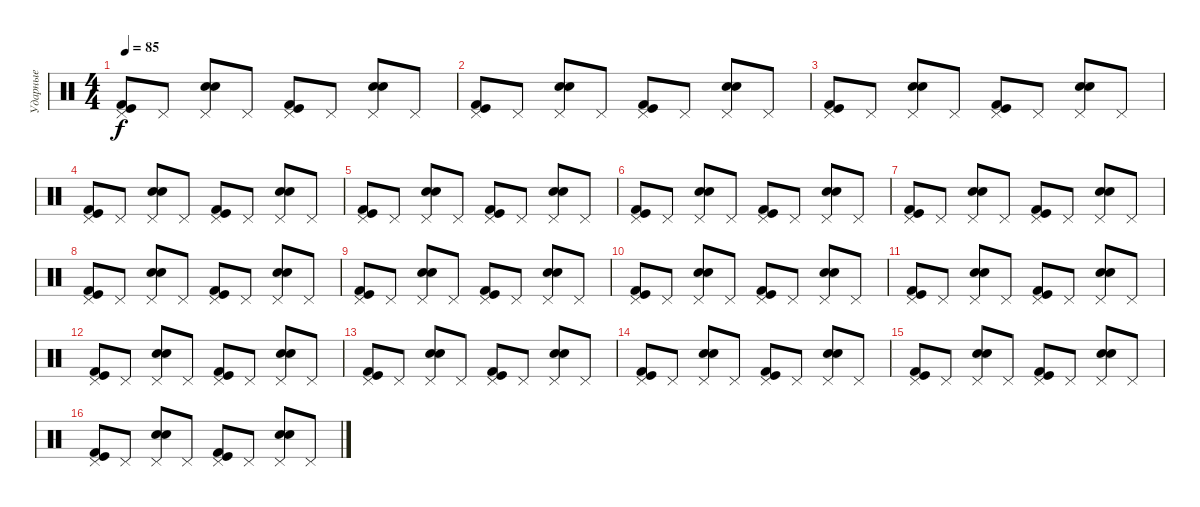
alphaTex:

\track ("Ударные" "Ударные") {instrument percussion}
\staff {score}
\articulation defaults
\ts (4 4)
\tempo 85
\clef neutral
\ks c
("Kick (hit) 2" "Kick (hit)" "Pedal Hi-Hat (hit)").8{dy f} "Pedal Hi-Hat (hit)".8 ("Snare (hit) 2" "Snare (hit) 2" "Pedal Hi-Hat (hit)").8 "Pedal Hi-Hat (hit)".8 ("Kick (hit) 2" "Kick (hit)" "Pedal Hi-Hat (hit)").8 "Pedal Hi-Hat (hit)".8 ("Snare (hit) 2" "Snare (hit) 2" "Pedal Hi-Hat (hit)").8 "Pedal Hi-Hat (hit)".8 |
("Kick (hit) 2" "Kick (hit)" "Pedal Hi-Hat (hit)").8 "Pedal Hi-Hat (hit)".8 ("Snare (hit) 2" "Snare (hit) 2" "Pedal Hi-Hat (hit)").8 "Pedal Hi-Hat (hit)".8 ("Kick (hit) 2" "Kick (hit)" "Pedal Hi-Hat (hit)").8 "Pedal Hi-Hat (hit)".8 ("Snare (hit) 2" "Snare (hit) 2" "Pedal Hi-Hat (hit)").8 "Pedal Hi-Hat (hit)".8 |
("Kick (hit) 2" "Kick (hit)" "Pedal Hi-Hat (hit)").8 "Pedal Hi-Hat (hit)".8 ("Snare (hit) 2" "Snare (hit) 2" "Pedal Hi-Hat (hit)").8 "Pedal Hi-Hat (hit)".8 ("Kick (hit) 2" "Kick (hit)" "Pedal Hi-Hat (hit)").8 "Pedal Hi-Hat (hit)".8 ("Snare (hit) 2" "Snare (hit) 2" "Pedal Hi-Hat (hit)").8 "Pedal Hi-Hat (hit)".8 |
("Kick (hit) 2" "Kick (hit)" "Pedal Hi-Hat (hit)").8 "Pedal Hi-Hat (hit)".8 ("Snare (hit) 2" "Snare (hit) 2" "Pedal Hi-Hat (hit)").8 "Pedal Hi-Hat (hit)".8 ("Kick (hit) 2" "Kick (hit)" "Pedal Hi-Hat (hit)").8 "Pedal Hi-Hat (hit)".8 ("Snare (hit) 2" "Snare (hit) 2" "Pedal Hi-Hat (hit)").8 "Pedal Hi-Hat (hit)".8 |
("Kick (hit) 2" "Kick (hit)" "Pedal Hi-Hat (hit)").8 "Pedal Hi-Hat (hit)".8 ("Snare (hit) 2" "Snare (hit) 2" "Pedal Hi-Hat (hit)").8 "Pedal Hi-Hat (hit)".8 ("Kick (hit) 2" "Kick (hit)" "Pedal Hi-Hat (hit)").8 "Pedal Hi-Hat (hit)".8 ("Snare (hit) 2" "Snare (hit) 2" "Pedal Hi-Hat (hit)").8 "Pedal Hi-Hat (hit)".8 |
("Kick (hit) 2" "Kick (hit)" "Pedal Hi-Hat (hit)").8 "Pedal Hi-Hat (hit)".8 ("Snare (hit) 2" "Snare (hit) 2" "Pedal Hi-Hat (hit)").8 "Pedal Hi-Hat (hit)".8 ("Kick (hit) 2" "Kick (hit)" "Pedal Hi-Hat (hit)").8 "Pedal Hi-Hat (hit)".8 ("Snare (hit) 2" "Snare (hit) 2" "Pedal Hi-Hat (hit)").8 "Pedal Hi-Hat (hit)".8 |
("Kick (hit) 2" "Kick (hit)" "Pedal Hi-Hat (hit)").8 "Pedal Hi-Hat (hit)".8 ("Snare (hit) 2" "Snare (hit) 2" "Pedal Hi-Hat (hit)").8 "Pedal Hi-Hat (hit)".8 ("Kick (hit) 2" "Kick (hit)" "Pedal Hi-Hat (hit)").8 "Pedal Hi-Hat (hit)".8 ("Snare (hit) 2" "Snare (hit) 2" "Pedal Hi-Hat (hit)").8 "Pedal Hi-Hat (hit)".8 |
("Kick (hit) 2" "Kick (hit)" "Pedal Hi-Hat (hit)").8 "Pedal Hi-Hat (hit)".8 ("Snare (hit) 2" "Snare (hit) 2" "Pedal Hi-Hat (hit)").8 "Pedal Hi-Hat (hit)".8 ("Kick (hit) 2" "Kick (hit)" "Pedal Hi-Hat (hit)").8 "Pedal Hi-Hat (hit)".8 ("Snare (hit) 2" "Snare (hit) 2" "Pedal Hi-Hat (hit)").8 "Pedal Hi-Hat (hit)".8 |
("Kick (hit) 2" "Kick (hit)" "Pedal Hi-Hat (hit)").8 "Pedal Hi-Hat (hit)".8 ("Snare (hit) 2" "Snare (hit) 2" "Pedal Hi-Hat (hit)").8 "Pedal Hi-Hat (hit)".8 ("Kick (hit) 2" "Kick (hit)" "Pedal Hi-Hat (hit)").8 "Pedal Hi-Hat (hit)".8 ("Snare (hit) 2" "Snare (hit) 2" "Pedal Hi-Hat (hit)").8 "Pedal Hi-Hat (hit)".8 |
("Kick (hit) 2" "Kick (hit)" "Pedal Hi-Hat (hit)").8 "Pedal Hi-Hat (hit)".8 ("Snare (hit) 2" "Snare (hit) 2" "Pedal Hi-Hat (hit)").8 "Pedal Hi-Hat (hit)".8 ("Kick (hit) 2" "Kick (hit)" "Pedal Hi-Hat (hit)").8 "Pedal Hi-Hat (hit)".8 ("Snare (hit) 2" "Snare (hit) 2" "Pedal Hi-Hat (hit)").8 "Pedal Hi-Hat (hit)".8 |
("Kick (hit) 2" "Kick (hit)" "Pedal Hi-Hat (hit)").8 "Pedal Hi-Hat (hit)".8 ("Snare (hit) 2" "Snare (hit) 2" "Pedal Hi-Hat (hit)").8 "Pedal Hi-Hat (hit)".8 ("Kick (hit) 2" "Kick (hit)" "Pedal Hi-Hat (hit)").8 "Pedal Hi-Hat (hit)".8 ("Snare (hit) 2" "Snare (hit) 2" "Pedal Hi-Hat (hit)").8 "Pedal Hi-Hat (hit)".8 |
("Kick (hit) 2" "Kick (hit)" "Pedal Hi-Hat (hit)").8 "Pedal Hi-Hat (hit)".8 ("Snare (hit) 2" "Snare (hit) 2" "Pedal Hi-Hat (hit)").8 "Pedal Hi-Hat (hit)".8 ("Kick (hit) 2" "Kick (hit)" "Pedal Hi-Hat (hit)").8 "Pedal Hi-Hat (hit)".8 ("Snare (hit) 2" "Snare (hit) 2" "Pedal Hi-Hat (hit)").8 "Pedal Hi-Hat (hit)".8 |
("Kick (hit) 2" "Kick (hit)" "Pedal Hi-Hat (hit)").8 "Pedal Hi-Hat (hit)".8 ("Snare (hit) 2" "Snare (hit) 2" "Pedal Hi-Hat (hit)").8 "Pedal Hi-Hat (hit)".8 ("Kick (hit) 2" "Kick (hit)" "Pedal Hi-Hat (hit)").8 "Pedal Hi-Hat (hit)".8 ("Snare (hit) 2" "Snare (hit) 2" "Pedal Hi-Hat (hit)").8 "Pedal Hi-Hat (hit)".8 |
("Kick (hit) 2" "Kick (hit)" "Pedal Hi-Hat (hit)").8 "Pedal Hi-Hat (hit)".8 ("Snare (hit) 2" "Snare (hit) 2" "Pedal Hi-Hat (hit)").8 "Pedal Hi-Hat (hit)".8 ("Kick (hit) 2" "Kick (hit)" "Pedal Hi-Hat (hit)").8 "Pedal Hi-Hat (hit)".8 ("Snare (hit) 2" "Snare (hit) 2" "Pedal Hi-Hat (hit)").8 "Pedal Hi-Hat (hit)".8 |
("Kick (hit) 2" "Kick (hit)" "Pedal Hi-Hat (hit)").8 "Pedal Hi-Hat (hit)".8 ("Snare (hit) 2" "Snare (hit) 2" "Pedal Hi-Hat (hit)").8 "Pedal Hi-Hat (hit)".8 ("Kick (hit) 2" "Kick (hit)" "Pedal Hi-Hat (hit)").8 "Pedal Hi-Hat (hit)".8 ("Snare (hit) 2" "Snare (hit) 2" "Pedal Hi-Hat (hit)").8 "Pedal Hi-Hat (hit)".8 |
("Kick (hit) 2" "Kick (hit)" "Pedal Hi-Hat (hit)").8 "Pedal Hi-Hat (hit)".8 ("Snare (hit) 2" "Snare (hit) 2" "Pedal Hi-Hat (hit)").8 "Pedal Hi-Hat (hit)".8 ("Kick (hit) 2" "Kick (hit)" "Pedal Hi-Hat (hit)").8 "Pedal Hi-Hat (hit)".8 ("Snare (hit) 2" "Snare (hit) 2" "Pedal Hi-Hat (hit)").8 "Pedal Hi-Hat (hit)".8
